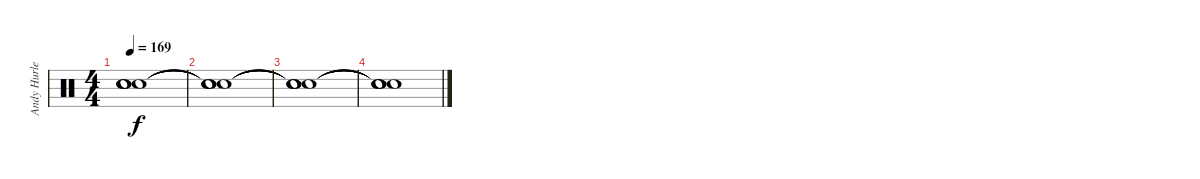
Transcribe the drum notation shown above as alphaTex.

\track ("Andy Hurley" "Andy Hurle") {instrument percussion}
\staff {score}
\articulation defaults
\ts (4 4)
\tempo 169
\clef neutral
\ks c
("Snare (hit)"{t} "Snare (hit)"{t} "Snare (hit)"{t} "Snare (hit)"{t}).1{dy f} |
("Snare (hit)"{t} "Snare (hit)"{t} "Snare (hit)"{t} "Snare (hit)"{t}).1 |
("Snare (hit)"{t} "Snare (hit)"{t} "Snare (hit)"{t} "Snare (hit)"{t}).1 |
("Snare (hit)"{t} "Snare (hit)"{t} "Snare (hit)"{t} "Snare (hit)"{t}).1
